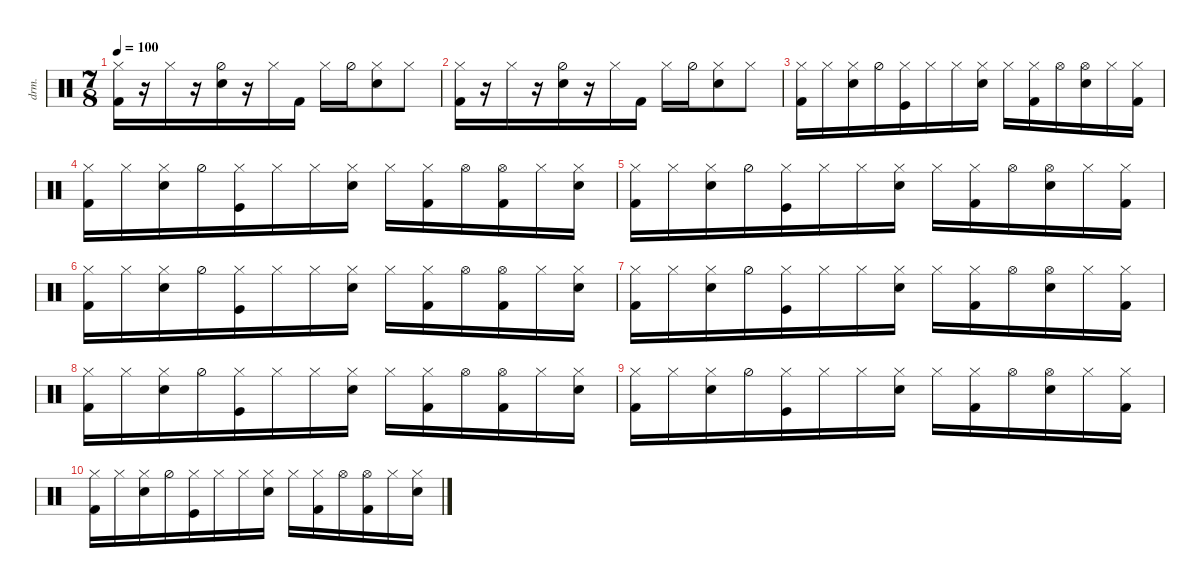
\defaultSystemsLayout 4
\hideDynamics
\bracketExtendMode nobrackets
\otherSystemsTrackNameOrientation horizontal
\track ("Drumkit" "drm.") {instrument percussion}
\staff {score}
\articulation defaults
\ts (7 8)
\tempo 100
\clef neutral
\ks c
("Hi-Hat (closed)" "Kick (hit) 2").16{dy mf beam Down} r.16{beam Down} "Hi-Hat (closed)".16{beam Down} r.16{beam Down} ("Hi-Hat (half)" "Snare (hit) 2").16{beam Down} r.16{beam Down} "Hi-Hat (closed)".16{beam Down} "Kick (hit) 2".16{beam Down} "Hi-Hat (closed)".16{beam Down} "Hi-Hat (half)".16{beam Down} ("Snare (hit) 2" "Hi-Hat (closed)").8{beam Down} "Hi-Hat (closed)".8{beam Down} |
("Hi-Hat (closed)" "Kick (hit) 2").16{beam Down} r.16{beam Down} "Hi-Hat (closed)".16{beam Down} r.16{beam Down} ("Hi-Hat (half)" "Snare (hit) 2").16{beam Down} r.16{beam Down} "Hi-Hat (closed)".16{beam Down} "Kick (hit) 2".16{beam Down} "Hi-Hat (closed)".16{beam Down} "Hi-Hat (half)".16{beam Down} ("Snare (hit) 2" "Hi-Hat (closed)").8{beam Down} "Hi-Hat (closed)".8{beam Down} |
("Hi-Hat (closed)" "Kick (hit) 2").16{beam Down} "Hi-Hat (closed)".16{beam Down} ("Hi-Hat (closed)" "Snare (hit) 2").16{beam Down} "Hi-Hat (half)".16{beam Down} ("Hi-Hat (closed)" "Kick (hit)").16{beam Down} "Hi-Hat (closed)".16{beam Down} "Hi-Hat (closed)".16{beam Down} ("Hi-Hat (closed)" "Snare (hit) 2").16{beam Down} "Hi-Hat (closed)".16{beam Down} ("Hi-Hat (closed)" "Kick (hit) 2").16{beam Down} "Hi-Hat (open)".16{beam Down} ("Hi-Hat (open)" "Snare (hit) 2").16{beam Down} "Hi-Hat (closed)".16{beam Down} ("Hi-Hat (closed)" "Kick (hit) 2").16{beam Down} |
("Hi-Hat (closed)" "Kick (hit) 2").16{beam Down} "Hi-Hat (closed)".16{beam Down} ("Hi-Hat (closed)" "Snare (hit) 2").16{beam Down} "Hi-Hat (half)".16{beam Down} ("Hi-Hat (closed)" "Kick (hit)").16{beam Down} "Hi-Hat (closed)".16{beam Down} "Hi-Hat (closed)".16{beam Down} ("Hi-Hat (closed)" "Snare (hit) 2").16{beam Down} "Hi-Hat (closed)".16{beam Down} ("Hi-Hat (closed)" "Kick (hit) 2").16{beam Down} "Hi-Hat (open)".16{beam Down} ("Hi-Hat (open)" "Kick (hit) 2").16{beam Down} "Hi-Hat (closed)".16{beam Down} ("Hi-Hat (closed)" "Snare (hit) 2").16{beam Down} |
("Hi-Hat (closed)" "Kick (hit) 2").16{beam Down} "Hi-Hat (closed)".16{beam Down} ("Hi-Hat (closed)" "Snare (hit) 2").16{beam Down} "Hi-Hat (half)".16{beam Down} ("Hi-Hat (closed)" "Kick (hit)").16{beam Down} "Hi-Hat (closed)".16{beam Down} "Hi-Hat (closed)".16{beam Down} ("Hi-Hat (closed)" "Snare (hit) 2").16{beam Down} "Hi-Hat (closed)".16{beam Down} ("Hi-Hat (closed)" "Kick (hit) 2").16{beam Down} "Hi-Hat (open)".16{beam Down} ("Hi-Hat (open)" "Snare (hit) 2").16{beam Down} "Hi-Hat (closed)".16{beam Down} ("Hi-Hat (closed)" "Kick (hit) 2").16{beam Down} |
("Hi-Hat (closed)" "Kick (hit) 2").16{beam Down} "Hi-Hat (closed)".16{beam Down} ("Hi-Hat (closed)" "Snare (hit) 2").16{beam Down} "Hi-Hat (half)".16{beam Down} ("Hi-Hat (closed)" "Kick (hit)").16{beam Down} "Hi-Hat (closed)".16{beam Down} "Hi-Hat (closed)".16{beam Down} ("Hi-Hat (closed)" "Snare (hit) 2").16{beam Down} "Hi-Hat (closed)".16{beam Down} ("Hi-Hat (closed)" "Kick (hit) 2").16{beam Down} "Hi-Hat (open)".16{beam Down} ("Hi-Hat (open)" "Kick (hit) 2").16{beam Down} "Hi-Hat (closed)".16{beam Down} ("Hi-Hat (closed)" "Snare (hit) 2").16{beam Down} |
("Hi-Hat (closed)" "Kick (hit) 2").16{beam Down} "Hi-Hat (closed)".16{beam Down} ("Hi-Hat (closed)" "Snare (hit) 2").16{beam Down} "Hi-Hat (half)".16{beam Down} ("Hi-Hat (closed)" "Kick (hit)").16{beam Down} "Hi-Hat (closed)".16{beam Down} "Hi-Hat (closed)".16{beam Down} ("Hi-Hat (closed)" "Snare (hit) 2").16{beam Down} "Hi-Hat (closed)".16{beam Down} ("Hi-Hat (closed)" "Kick (hit) 2").16{beam Down} "Hi-Hat (open)".16{beam Down} ("Hi-Hat (open)" "Snare (hit) 2").16{beam Down} "Hi-Hat (closed)".16{beam Down} ("Hi-Hat (closed)" "Kick (hit) 2").16{beam Down} |
("Hi-Hat (closed)" "Kick (hit) 2").16{beam Down} "Hi-Hat (closed)".16{beam Down} ("Hi-Hat (closed)" "Snare (hit) 2").16{beam Down} "Hi-Hat (half)".16{beam Down} ("Hi-Hat (closed)" "Kick (hit)").16{beam Down} "Hi-Hat (closed)".16{beam Down} "Hi-Hat (closed)".16{beam Down} ("Hi-Hat (closed)" "Snare (hit) 2").16{beam Down} "Hi-Hat (closed)".16{beam Down} ("Hi-Hat (closed)" "Kick (hit) 2").16{beam Down} "Hi-Hat (open)".16{beam Down} ("Hi-Hat (open)" "Kick (hit) 2").16{beam Down} "Hi-Hat (closed)".16{beam Down} ("Hi-Hat (closed)" "Snare (hit) 2").16{beam Down} |
("Hi-Hat (closed)" "Kick (hit) 2").16{beam Down} "Hi-Hat (closed)".16{beam Down} ("Hi-Hat (closed)" "Snare (hit) 2").16{beam Down} "Hi-Hat (half)".16{beam Down} ("Hi-Hat (closed)" "Kick (hit)").16{beam Down} "Hi-Hat (closed)".16{beam Down} "Hi-Hat (closed)".16{beam Down} ("Hi-Hat (closed)" "Snare (hit) 2").16{beam Down} "Hi-Hat (closed)".16{beam Down} ("Hi-Hat (closed)" "Kick (hit) 2").16{beam Down} "Hi-Hat (open)".16{beam Down} ("Hi-Hat (open)" "Snare (hit) 2").16{beam Down} "Hi-Hat (closed)".16{beam Down} ("Hi-Hat (closed)" "Kick (hit) 2").16{beam Down} |
("Hi-Hat (closed)" "Kick (hit) 2").16{beam Down} "Hi-Hat (closed)".16{beam Down} ("Hi-Hat (closed)" "Snare (hit) 2").16{beam Down} "Hi-Hat (half)".16{beam Down} ("Hi-Hat (closed)" "Kick (hit)").16{beam Down} "Hi-Hat (closed)".16{beam Down} "Hi-Hat (closed)".16{beam Down} ("Hi-Hat (closed)" "Snare (hit) 2").16{beam Down} "Hi-Hat (closed)".16{beam Down} ("Hi-Hat (closed)" "Kick (hit) 2").16{beam Down} "Hi-Hat (open)".16{beam Down} ("Hi-Hat (open)" "Kick (hit) 2").16{beam Down} "Hi-Hat (closed)".16{beam Down} ("Hi-Hat (closed)" "Snare (hit) 2").16{beam Down}
